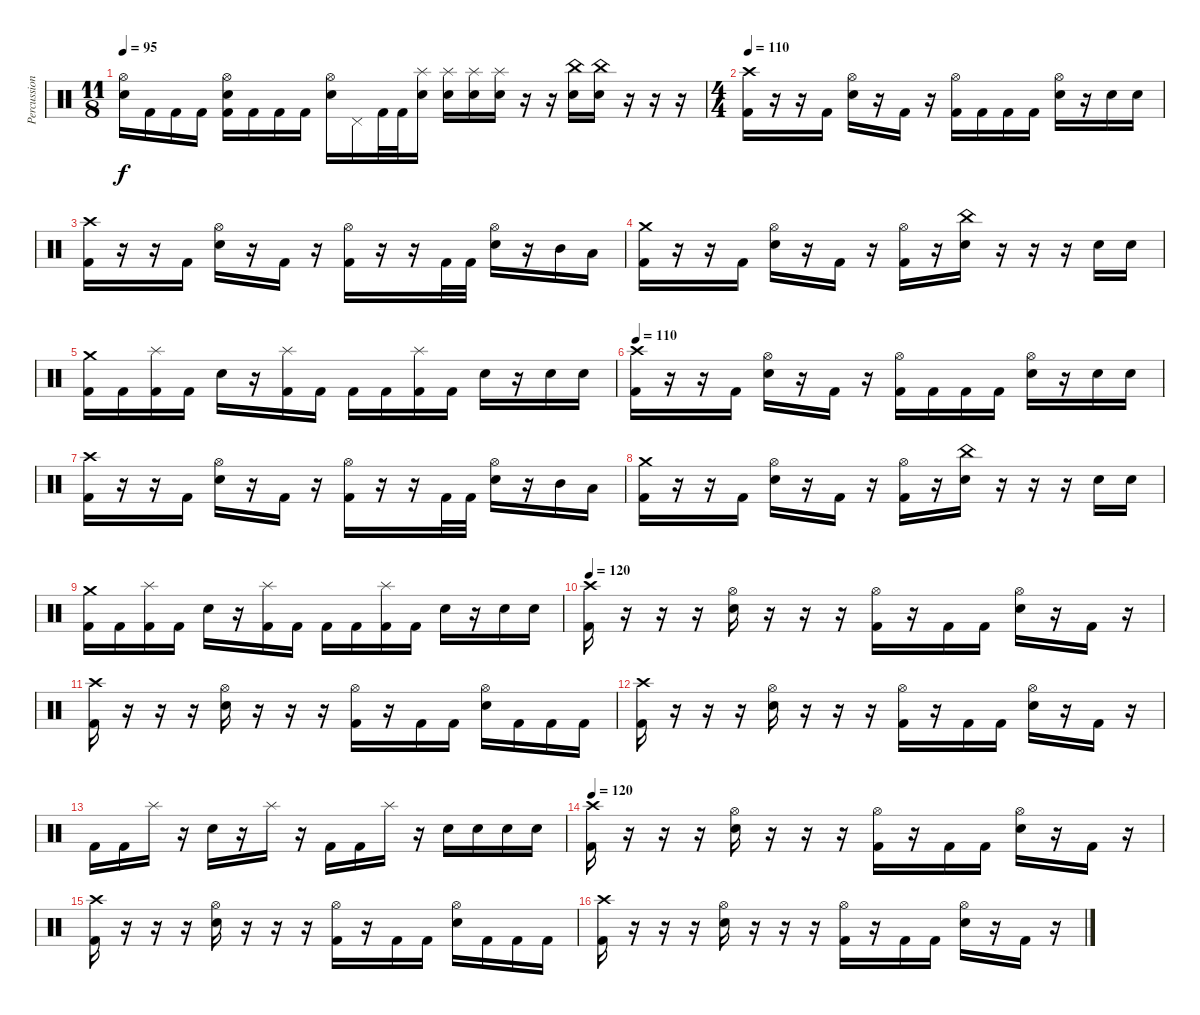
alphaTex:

\track ("Percussion" "Percussion") {instrument percussion}
\staff {score}
\articulation defaults
\ts (11 8)
\tempo 95
\clef neutral
\ks c
("Hi-Hat (open)" "Electric Snare (hit)").16{dy f} "Kick (hit) 2".16 "Kick (hit) 2".16 "Kick (hit) 2".16 ("Hi-Hat (open)" "Electric Snare (hit)" "Kick (hit) 2").16 "Kick (hit) 2".16 "Kick (hit) 2".16 "Kick (hit) 2".16 ("Hi-Hat (open)" "Electric Snare (hit)").16 "Pedal Hi-Hat (hit)".16 "Kick (hit) 2".32 "Kick (hit) 2".32 ("Splash (hit)" "Electric Snare (hit)").16 ("Splash (hit)" "Electric Snare (hit)").16 ("Splash (hit)" "Electric Snare (hit)").16 ("Splash (hit)" "Electric Snare (hit)").16 r.16 r.16 ("China (hit)" "Electric Snare (hit)").16 ("China (hit)" "Electric Snare (hit)").16 r.16 r.16 r.16 |
\ts (4 4)
\tempo 110
("Crash high (hit)" "Kick (hit) 2").16 r.16 r.16 "Kick (hit) 2".16 ("Hi-Hat (open)" "Electric Snare (hit)").16 r.16 "Kick (hit) 2".16 r.16 ("Hi-Hat (open)" "Kick (hit) 2").16 "Kick (hit) 2".16 "Kick (hit) 2".16 "Kick (hit) 2".16 ("Hi-Hat (open)" "Electric Snare (hit)").16 r.16 "Electric Snare (hit)".16 "Electric Snare (hit)".16 |
("Crash high (hit)" "Kick (hit) 2").16 r.16 r.16 "Kick (hit) 2".16 ("Hi-Hat (open)" "Electric Snare (hit)").16 r.16 "Kick (hit) 2".16 r.16 ("Hi-Hat (open)" "Kick (hit) 2").16 r.16 r.16 "Kick (hit) 2".32 "Kick (hit) 2".32 ("Hi-Hat (open)" "Electric Snare (hit)").16 r.16 "Mid Tom (hit)".16 "Low Tom (hit)".16 |
("Crash medium (hit)" "Kick (hit) 2").16 r.16 r.16 "Kick (hit) 2".16 ("Hi-Hat (open)" "Electric Snare (hit)").16 r.16 "Kick (hit) 2".16 r.16 ("Hi-Hat (open)" "Kick (hit) 2").16 r.16 ("China (hit)" "Electric Snare (hit)").16 r.16 r.16 r.16 "Electric Snare (hit)".16 "Electric Snare (hit)".16 |
("Crash medium (hit)" "Kick (hit) 2").16 "Kick (hit) 2".16 ("Splash (hit)" "Kick (hit) 2").16 "Kick (hit) 2".16 "Electric Snare (hit)".16 r.16 ("Splash (hit)" "Kick (hit) 2").16 "Kick (hit) 2".16 "Kick (hit) 2".16 "Kick (hit) 2".16 ("Splash (hit)" "Kick (hit) 2").16 "Kick (hit) 2".16 "Electric Snare (hit)".16 r.16 "Electric Snare (hit)".16 "Electric Snare (hit)".16 |
\tempo 110
("Crash high (hit)" "Kick (hit) 2").16 r.16 r.16 "Kick (hit) 2".16 ("Hi-Hat (open)" "Electric Snare (hit)").16 r.16 "Kick (hit) 2".16 r.16 ("Hi-Hat (open)" "Kick (hit) 2").16 "Kick (hit) 2".16 "Kick (hit) 2".16 "Kick (hit) 2".16 ("Hi-Hat (open)" "Electric Snare (hit)").16 r.16 "Electric Snare (hit)".16 "Electric Snare (hit)".16 |
("Crash high (hit)" "Kick (hit) 2").16 r.16 r.16 "Kick (hit) 2".16 ("Hi-Hat (open)" "Electric Snare (hit)").16 r.16 "Kick (hit) 2".16 r.16 ("Hi-Hat (open)" "Kick (hit) 2").16 r.16 r.16 "Kick (hit) 2".32 "Kick (hit) 2".32 ("Hi-Hat (open)" "Electric Snare (hit)").16 r.16 "Mid Tom (hit)".16 "Low Tom (hit)".16 |
("Crash medium (hit)" "Kick (hit) 2").16 r.16 r.16 "Kick (hit) 2".16 ("Hi-Hat (open)" "Electric Snare (hit)").16 r.16 "Kick (hit) 2".16 r.16 ("Hi-Hat (open)" "Kick (hit) 2").16 r.16 ("China (hit)" "Electric Snare (hit)").16 r.16 r.16 r.16 "Electric Snare (hit)".16 "Electric Snare (hit)".16 |
("Crash medium (hit)" "Kick (hit) 2").16 "Kick (hit) 2".16 ("Splash (hit)" "Kick (hit) 2").16 "Kick (hit) 2".16 "Electric Snare (hit)".16 r.16 ("Splash (hit)" "Kick (hit) 2").16 "Kick (hit) 2".16 "Kick (hit) 2".16 "Kick (hit) 2".16 ("Splash (hit)" "Kick (hit) 2").16 "Kick (hit) 2".16 "Electric Snare (hit)".16 r.16 "Electric Snare (hit)".16 "Electric Snare (hit)".16 |
\tempo 120
("Crash high (hit)" "Kick (hit) 2").16 r.16 r.16 r.16 ("Hi-Hat (open)" "Electric Snare (hit)").16 r.16 r.16 r.16 ("Hi-Hat (open)" "Kick (hit) 2").16 r.16 "Kick (hit) 2".16 "Kick (hit) 2".16 ("Hi-Hat (open)" "Electric Snare (hit)").16 r.16 "Kick (hit) 2".16 r.16 |
("Crash high (hit)" "Kick (hit) 2").16 r.16 r.16 r.16 ("Hi-Hat (open)" "Electric Snare (hit)").16 r.16 r.16 r.16 ("Hi-Hat (open)" "Kick (hit) 2").16 r.16 "Kick (hit) 2".16 "Kick (hit) 2".16 ("Hi-Hat (open)" "Electric Snare (hit)").16 "Kick (hit) 2".16 "Kick (hit) 2".16 "Kick (hit) 2".16 |
("Crash high (hit)" "Kick (hit) 2").16 r.16 r.16 r.16 ("Hi-Hat (open)" "Electric Snare (hit)").16 r.16 r.16 r.16 ("Hi-Hat (open)" "Kick (hit) 2").16 r.16 "Kick (hit) 2".16 "Kick (hit) 2".16 ("Hi-Hat (open)" "Electric Snare (hit)").16 r.16 "Kick (hit) 2".16 r.16 |
"Kick (hit) 2".16 "Kick (hit) 2".16 "Splash (hit)".16 r.16 "Electric Snare (hit)".16 r.16 "Splash (hit)".16 r.16 "Kick (hit) 2".16 "Kick (hit) 2".16 "Splash (hit)".16 r.16 "Electric Snare (hit)".16 "Electric Snare (hit)".16 "Electric Snare (hit)".16 "Electric Snare (hit)".16 |
\tempo 120
("Crash high (hit)" "Kick (hit) 2").16 r.16 r.16 r.16 ("Hi-Hat (open)" "Electric Snare (hit)").16 r.16 r.16 r.16 ("Hi-Hat (open)" "Kick (hit) 2").16 r.16 "Kick (hit) 2".16 "Kick (hit) 2".16 ("Hi-Hat (open)" "Electric Snare (hit)").16 r.16 "Kick (hit) 2".16 r.16 |
("Crash high (hit)" "Kick (hit) 2").16 r.16 r.16 r.16 ("Hi-Hat (open)" "Electric Snare (hit)").16 r.16 r.16 r.16 ("Hi-Hat (open)" "Kick (hit) 2").16 r.16 "Kick (hit) 2".16 "Kick (hit) 2".16 ("Hi-Hat (open)" "Electric Snare (hit)").16 "Kick (hit) 2".16 "Kick (hit) 2".16 "Kick (hit) 2".16 |
("Crash high (hit)" "Kick (hit) 2").16 r.16 r.16 r.16 ("Hi-Hat (open)" "Electric Snare (hit)").16 r.16 r.16 r.16 ("Hi-Hat (open)" "Kick (hit) 2").16 r.16 "Kick (hit) 2".16 "Kick (hit) 2".16 ("Hi-Hat (open)" "Electric Snare (hit)").16 r.16 "Kick (hit) 2".16 r.16
